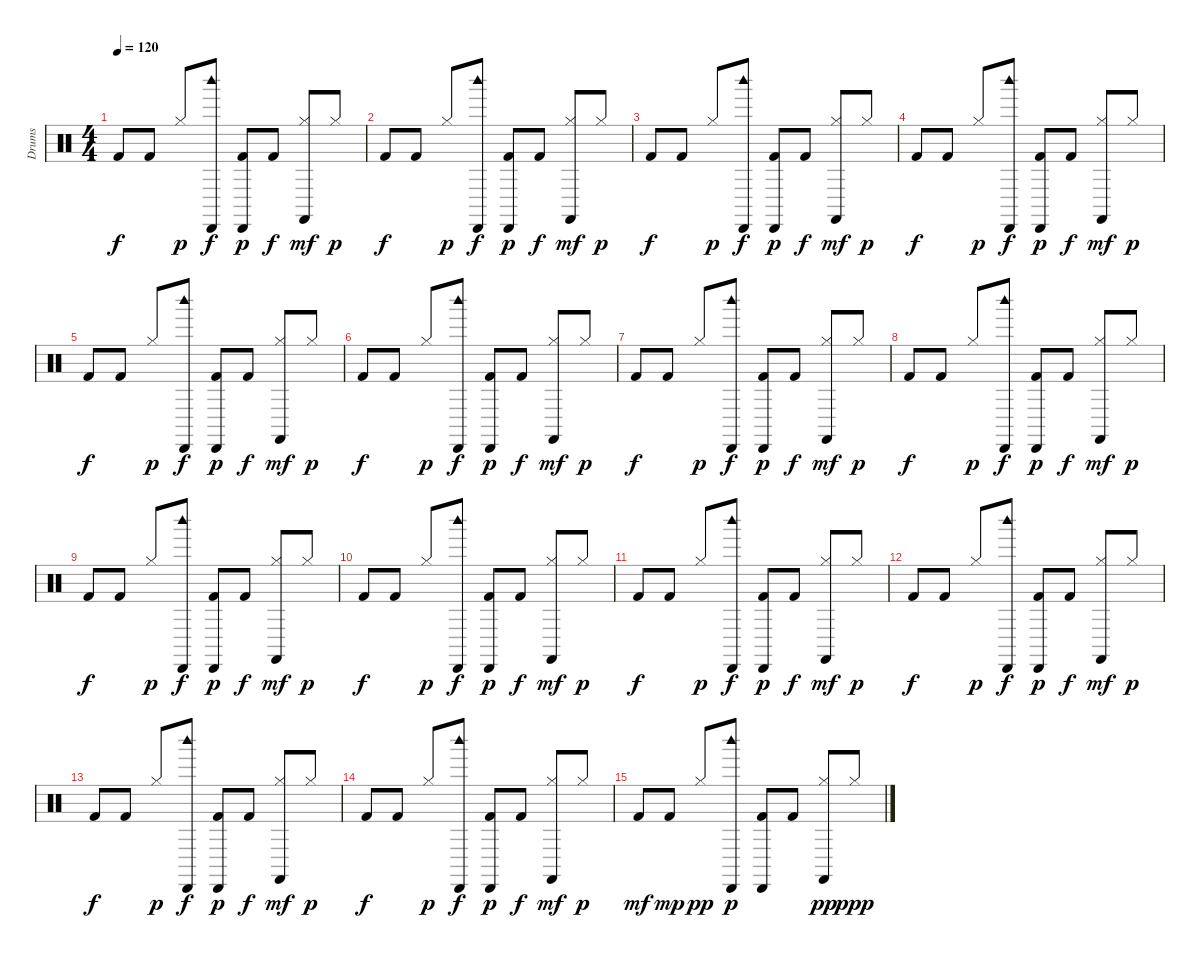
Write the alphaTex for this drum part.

\track ("Drums" "Drums") {instrument percussion}
\staff {score}
\articulation defaults
\ts (4 4)
\tempo 120
\clef neutral
\ks c "Kick (hit) 2".8{dy f} "Kick (hit) 2".8 "Hi-Hat (closed)".8{dy p}
("Woodblock high (hit)" "Cabasa (hit)").8{dy f} ("Cabasa (hit)" "Kick (hit) 2").8{dy p} "Kick (hit) 2".8{dy f} ("Castanets (hit)" "Hi-Hat (closed)").8{dy mf} "Hi-Hat (closed)".8{dy p} |
"Kick (hit) 2".8{dy f} "Kick (hit) 2".8 "Hi-Hat (closed)".8{dy p} ("Woodblock high (hit)" "Cabasa (hit)").8{dy f} ("Cabasa (hit)" "Kick (hit) 2").8{dy p} "Kick (hit) 2".8{dy f} ("Castanets (hit)" "Hi-Hat (closed)").8{dy mf} "Hi-Hat (closed)".8{dy p} |
"Kick (hit) 2".8{dy f} "Kick (hit) 2".8 "Hi-Hat (closed)".8{dy p} ("Woodblock high (hit)" "Cabasa (hit)").8{dy f} ("Cabasa (hit)" "Kick (hit) 2").8{dy p} "Kick (hit) 2".8{dy f} ("Castanets (hit)" "Hi-Hat (closed)").8{dy mf} "Hi-Hat (closed)".8{dy p} |
"Kick (hit) 2".8{dy f} "Kick (hit) 2".8 "Hi-Hat (closed)".8{dy p} ("Woodblock high (hit)" "Cabasa (hit)").8{dy f} ("Cabasa (hit)" "Kick (hit) 2").8{dy p} "Kick (hit) 2".8{dy f} ("Castanets (hit)" "Hi-Hat (closed)").8{dy mf} "Hi-Hat (closed)".8{dy p} |
"Kick (hit) 2".8{dy f} "Kick (hit) 2".8 "Hi-Hat (closed)".8{dy p} ("Woodblock high (hit)" "Cabasa (hit)").8{dy f} ("Cabasa (hit)" "Kick (hit) 2").8{dy p} "Kick (hit) 2".8{dy f} ("Castanets (hit)" "Hi-Hat (closed)").8{dy mf} "Hi-Hat (closed)".8{dy p} |
"Kick (hit) 2".8{dy f} "Kick (hit) 2".8 "Hi-Hat (closed)".8{dy p} ("Woodblock high (hit)" "Cabasa (hit)").8{dy f} ("Cabasa (hit)" "Kick (hit) 2").8{dy p} "Kick (hit) 2".8{dy f} ("Castanets (hit)" "Hi-Hat (closed)").8{dy mf} "Hi-Hat (closed)".8{dy p} |
"Kick (hit) 2".8{dy f} "Kick (hit) 2".8 "Hi-Hat (closed)".8{dy p} ("Woodblock high (hit)" "Cabasa (hit)").8{dy f} ("Cabasa (hit)" "Kick (hit) 2").8{dy p} "Kick (hit) 2".8{dy f} ("Castanets (hit)" "Hi-Hat (closed)").8{dy mf} "Hi-Hat (closed)".8{dy p} |
"Kick (hit) 2".8{dy f} "Kick (hit) 2".8 "Hi-Hat (closed)".8{dy p} ("Woodblock high (hit)" "Cabasa (hit)").8{dy f} ("Cabasa (hit)" "Kick (hit) 2").8{dy p} "Kick (hit) 2".8{dy f} ("Castanets (hit)" "Hi-Hat (closed)").8{dy mf} "Hi-Hat (closed)".8{dy p} |
"Kick (hit) 2".8{dy f} "Kick (hit) 2".8 "Hi-Hat (closed)".8{dy p} ("Woodblock high (hit)" "Cabasa (hit)").8{dy f} ("Cabasa (hit)" "Kick (hit) 2").8{dy p} "Kick (hit) 2".8{dy f} ("Castanets (hit)" "Hi-Hat (closed)").8{dy mf} "Hi-Hat (closed)".8{dy p} |
"Kick (hit) 2".8{dy f} "Kick (hit) 2".8 "Hi-Hat (closed)".8{dy p} ("Woodblock high (hit)" "Cabasa (hit)").8{dy f} ("Cabasa (hit)" "Kick (hit) 2").8{dy p} "Kick (hit) 2".8{dy f} ("Castanets (hit)" "Hi-Hat (closed)").8{dy mf} "Hi-Hat (closed)".8{dy p} |
"Kick (hit) 2".8{dy f} "Kick (hit) 2".8 "Hi-Hat (closed)".8{dy p} ("Woodblock high (hit)" "Cabasa (hit)").8{dy f} ("Cabasa (hit)" "Kick (hit) 2").8{dy p} "Kick (hit) 2".8{dy f} ("Castanets (hit)" "Hi-Hat (closed)").8{dy mf} "Hi-Hat (closed)".8{dy p} |
"Kick (hit) 2".8{dy f} "Kick (hit) 2".8 "Hi-Hat (closed)".8{dy p} ("Woodblock high (hit)" "Cabasa (hit)").8{dy f} ("Cabasa (hit)" "Kick (hit) 2").8{dy p} "Kick (hit) 2".8{dy f} ("Castanets (hit)" "Hi-Hat (closed)").8{dy mf} "Hi-Hat (closed)".8{dy p} |
"Kick (hit) 2".8{dy f} "Kick (hit) 2".8 "Hi-Hat (closed)".8{dy p} ("Woodblock high (hit)" "Cabasa (hit)").8{dy f} ("Cabasa (hit)" "Kick (hit) 2").8{dy p} "Kick (hit) 2".8{dy f} ("Castanets (hit)" "Hi-Hat (closed)").8{dy mf} "Hi-Hat (closed)".8{dy p} |
"Kick (hit) 2".8{dy f} "Kick (hit) 2".8 "Hi-Hat (closed)".8{dy p} ("Woodblock high (hit)" "Cabasa (hit)").8{dy f} ("Cabasa (hit)" "Kick (hit) 2").8{dy p} "Kick (hit) 2".8{dy f} ("Castanets (hit)" "Hi-Hat (closed)").8{dy mf} "Hi-Hat (closed)".8{dy p} |
"Kick (hit) 2".8{dy mf} "Kick (hit) 2".8{dy mp} "Hi-Hat (closed)".8{dy pp} ("Woodblock high (hit)" "Cabasa (hit)").8{dy p} ("Cabasa (hit)" "Kick (hit) 2").8 "Kick (hit) 2".8 ("Castanets (hit)" "Hi-Hat (closed)").8{dy pp} "Hi-Hat (closed)".8{dy ppp}
